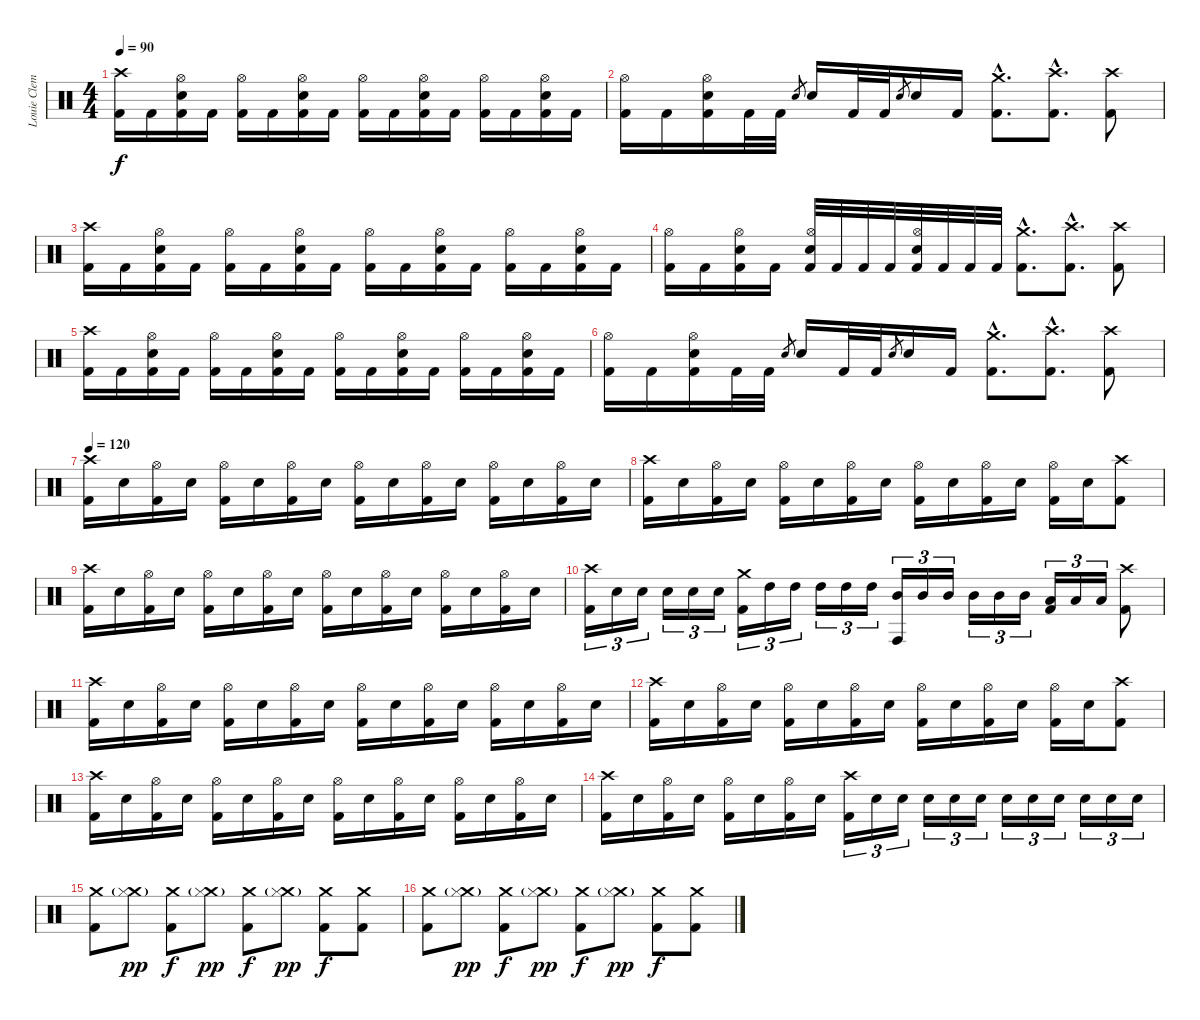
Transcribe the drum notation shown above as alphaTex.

\track ("Louie Clemente" "Louie Clem") {instrument percussion}
\staff {score}
\articulation defaults
\ts (4 4)
\tempo 90
\clef neutral
\ks c
("Crash high (hit)" "Kick (hit) 2").16{dy f} "Kick (hit) 2".16 ("Hi-Hat (open)" "Snare (hit) 2" "Kick (hit) 2").16 "Kick (hit) 2".16 ("Hi-Hat (open)" "Kick (hit) 2").16 "Kick (hit) 2".16 ("Hi-Hat (open)" "Snare (hit) 2" "Kick (hit) 2").16 "Kick (hit) 2".16 ("Hi-Hat (open)" "Kick (hit) 2").16 "Kick (hit) 2".16 ("Hi-Hat (open)" "Snare (hit) 2" "Kick (hit) 2").16 "Kick (hit) 2".16 ("Hi-Hat (open)" "Kick (hit) 2").16 "Kick (hit) 2".16 ("Hi-Hat (open)" "Snare (hit) 2" "Kick (hit) 2").16 "Kick (hit) 2".16 |
("Hi-Hat (open)" "Kick (hit) 2").16 "Kick (hit) 2".16 ("Hi-Hat (open)" "Snare (hit) 2" "Kick (hit) 2").16 "Kick (hit) 2".32 "Kick (hit) 2".32 "Snare (hit) 2".8{gr} "Snare (hit) 2".16 "Kick (hit) 2".32 "Kick (hit) 2".32 "Snare (hit) 2".8{gr} "Snare (hit) 2".16 "Kick (hit) 2".16 ("Crash medium (hit)"{hac} "Kick (hit) 2"{hac}).8{d} ("Crash high (hit)"{hac} "Kick (hit) 2"{hac}).8{d} ("Crash high (hit)" "Kick (hit) 2").8 |
("Crash high (hit)" "Kick (hit) 2").16 "Kick (hit) 2".16 ("Hi-Hat (open)" "Snare (hit) 2" "Kick (hit) 2").16 "Kick (hit) 2".16 ("Hi-Hat (open)" "Kick (hit) 2").16 "Kick (hit) 2".16 ("Hi-Hat (open)" "Snare (hit) 2" "Kick (hit) 2").16 "Kick (hit) 2".16 ("Hi-Hat (open)" "Kick (hit) 2").16 "Kick (hit) 2".16 ("Hi-Hat (open)" "Snare (hit) 2" "Kick (hit) 2").16 "Kick (hit) 2".16 ("Hi-Hat (open)" "Kick (hit) 2").16 "Kick (hit) 2".16 ("Hi-Hat (open)" "Snare (hit) 2" "Kick (hit) 2").16 "Kick (hit) 2".16 |
("Hi-Hat (open)" "Kick (hit) 2").16 "Kick (hit) 2".16 ("Hi-Hat (open)" "Snare (hit) 2" "Kick (hit) 2").16 "Kick (hit) 2".16 ("Hi-Hat (open)" "Snare (hit) 2" "Kick (hit) 2").32 "Kick (hit) 2".32 "Kick (hit) 2".32 "Kick (hit) 2".32 ("Hi-Hat (open)" "Snare (hit) 2" "Kick (hit) 2").32 "Kick (hit) 2".32 "Kick (hit) 2".32 "Kick (hit) 2".32 ("Crash medium (hit)"{hac} "Kick (hit) 2"{hac}).8{d} ("Crash high (hit)"{hac} "Kick (hit) 2"{hac}).8{d} ("Crash high (hit)" "Kick (hit) 2").8 |
("Crash high (hit)" "Kick (hit) 2").16 "Kick (hit) 2".16 ("Hi-Hat (open)" "Snare (hit) 2" "Kick (hit) 2").16 "Kick (hit) 2".16 ("Hi-Hat (open)" "Kick (hit) 2").16 "Kick (hit) 2".16 ("Hi-Hat (open)" "Snare (hit) 2" "Kick (hit) 2").16 "Kick (hit) 2".16 ("Hi-Hat (open)" "Kick (hit) 2").16 "Kick (hit) 2".16 ("Hi-Hat (open)" "Snare (hit) 2" "Kick (hit) 2").16 "Kick (hit) 2".16 ("Hi-Hat (open)" "Kick (hit) 2").16 "Kick (hit) 2".16 ("Hi-Hat (open)" "Snare (hit) 2" "Kick (hit) 2").16 "Kick (hit) 2".16 |
("Hi-Hat (open)" "Kick (hit) 2").16 "Kick (hit) 2".16 ("Hi-Hat (open)" "Snare (hit) 2" "Kick (hit) 2").16 "Kick (hit) 2".32 "Kick (hit) 2".32 "Snare (hit) 2".8{gr} "Snare (hit) 2".16 "Kick (hit) 2".32 "Kick (hit) 2".32 "Snare (hit) 2".8{gr} "Snare (hit) 2".16 "Kick (hit) 2".16 ("Crash medium (hit)"{hac} "Kick (hit) 2"{hac}).8{d} ("Crash high (hit)"{hac} "Kick (hit) 2"{hac}).8{d} ("Crash high (hit)" "Kick (hit) 2").8 |
\tempo 120
("Crash high (hit)" "Kick (hit) 2").16 "Snare (hit) 2".16 ("Hi-Hat (open)" "Kick (hit) 2").16 "Snare (hit) 2".16 ("Hi-Hat (open)" "Kick (hit) 2").16 "Snare (hit) 2".16 ("Hi-Hat (open)" "Kick (hit) 2").16 "Snare (hit) 2".16 ("Hi-Hat (open)" "Kick (hit) 2").16 "Snare (hit) 2".16 ("Hi-Hat (open)" "Kick (hit) 2").16 "Snare (hit) 2".16 ("Hi-Hat (open)" "Kick (hit) 2").16 "Snare (hit) 2".16 ("Hi-Hat (open)" "Kick (hit) 2").16 "Snare (hit) 2".16 |
("Crash high (hit)" "Kick (hit) 2").16 "Snare (hit) 2".16 ("Hi-Hat (open)" "Kick (hit) 2").16 "Snare (hit) 2".16 ("Hi-Hat (open)" "Kick (hit) 2").16 "Snare (hit) 2".16 ("Hi-Hat (open)" "Kick (hit) 2").16 "Snare (hit) 2".16 ("Hi-Hat (open)" "Kick (hit) 2").16 "Snare (hit) 2".16 ("Hi-Hat (open)" "Kick (hit) 2").16 "Snare (hit) 2".16 ("Hi-Hat (open)" "Kick (hit) 2").16 "Snare (hit) 2".16 ("Crash high (hit)" "Kick (hit) 2").8 |
("Crash high (hit)" "Kick (hit) 2").16 "Snare (hit) 2".16 ("Hi-Hat (open)" "Kick (hit) 2").16 "Snare (hit) 2".16 ("Hi-Hat (open)" "Kick (hit) 2").16 "Snare (hit) 2".16 ("Hi-Hat (open)" "Kick (hit) 2").16 "Snare (hit) 2".16 ("Hi-Hat (open)" "Kick (hit) 2").16 "Snare (hit) 2".16 ("Hi-Hat (open)" "Kick (hit) 2").16 "Snare (hit) 2".16 ("Hi-Hat (open)" "Kick (hit) 2").16 "Snare (hit) 2".16 ("Hi-Hat (open)" "Kick (hit) 2").16 "Snare (hit) 2".16 |
("Crash high (hit)" "Kick (hit) 2").16{tu (3 2)} "Snare (hit) 2".16{tu (3 2)} "Snare (hit) 2".16{tu (3 2)} "Snare (hit) 2".16{tu (3 2)} "Snare (hit) 2".16{tu (3 2)} "Snare (hit) 2".16{tu (3 2)} ("Crash medium (hit)" "Kick (hit) 2").16{tu (3 2)} "High Tom (hit)".16{tu (3 2)} "High Tom (hit)".16{tu (3 2)} "High Tom (hit)".16{tu (3 2)} "High Tom (hit)".16{tu (3 2)} "High Tom (hit)".16{tu (3 2)} ("Mid Tom (hit)" "Conga high (hit)").16{tu (3 2)} "Mid Tom (hit)".16{tu (3 2)} "Mid Tom (hit)".16{tu (3 2)} "Mid Tom (hit)".16{tu (3 2)} "Mid Tom (hit)".16{tu (3 2)} "Mid Tom (hit)".16{tu (3 2)} ("Low Tom (hit)" "Kick (hit) 2").16{tu (3 2)} "Low Tom (hit)".16{tu (3 2)} "Low Tom (hit)".16{tu (3 2)} ("Crash high (hit)" "Kick (hit) 2").8 |
("Crash high (hit)" "Kick (hit) 2").16 "Snare (hit) 2".16 ("Hi-Hat (open)" "Kick (hit) 2").16 "Snare (hit) 2".16 ("Hi-Hat (open)" "Kick (hit) 2").16 "Snare (hit) 2".16 ("Hi-Hat (open)" "Kick (hit) 2").16 "Snare (hit) 2".16 ("Hi-Hat (open)" "Kick (hit) 2").16 "Snare (hit) 2".16 ("Hi-Hat (open)" "Kick (hit) 2").16 "Snare (hit) 2".16 ("Hi-Hat (open)" "Kick (hit) 2").16 "Snare (hit) 2".16 ("Hi-Hat (open)" "Kick (hit) 2").16 "Snare (hit) 2".16 |
("Crash high (hit)" "Kick (hit) 2").16 "Snare (hit) 2".16 ("Hi-Hat (open)" "Kick (hit) 2").16 "Snare (hit) 2".16 ("Hi-Hat (open)" "Kick (hit) 2").16 "Snare (hit) 2".16 ("Hi-Hat (open)" "Kick (hit) 2").16 "Snare (hit) 2".16 ("Hi-Hat (open)" "Kick (hit) 2").16 "Snare (hit) 2".16 ("Hi-Hat (open)" "Kick (hit) 2").16 "Snare (hit) 2".16 ("Hi-Hat (open)" "Kick (hit) 2").16 "Snare (hit) 2".16 ("Crash high (hit)" "Kick (hit) 2").8 |
("Crash high (hit)" "Kick (hit) 2").16 "Snare (hit) 2".16 ("Hi-Hat (open)" "Kick (hit) 2").16 "Snare (hit) 2".16 ("Hi-Hat (open)" "Kick (hit) 2").16 "Snare (hit) 2".16 ("Hi-Hat (open)" "Kick (hit) 2").16 "Snare (hit) 2".16 ("Hi-Hat (open)" "Kick (hit) 2").16 "Snare (hit) 2".16 ("Hi-Hat (open)" "Kick (hit) 2").16 "Snare (hit) 2".16 ("Hi-Hat (open)" "Kick (hit) 2").16 "Snare (hit) 2".16 ("Hi-Hat (open)" "Kick (hit) 2").16 "Snare (hit) 2".16 |
("Crash high (hit)" "Kick (hit) 2").16 "Snare (hit) 2".16 ("Hi-Hat (open)" "Kick (hit) 2").16 "Snare (hit) 2".16 ("Hi-Hat (open)" "Kick (hit) 2").16 "Snare (hit) 2".16 ("Hi-Hat (open)" "Kick (hit) 2").16 "Snare (hit) 2".16 ("Crash high (hit)" "Kick (hit) 2").16{tu (3 2)} "Snare (hit) 2".16{tu (3 2)} "Snare (hit) 2".16{tu (3 2)} "Snare (hit) 2".16{tu (3 2)} "Snare (hit) 2".16{tu (3 2)} "Snare (hit) 2".16{tu (3 2)} "Snare (hit) 2".16{tu (3 2)} "Snare (hit) 2".16{tu (3 2)} "Snare (hit) 2".16{tu (3 2)} "Snare (hit) 2".16{tu (3 2)} "Snare (hit) 2".16{tu (3 2)} "Snare (hit) 2".16{tu (3 2)} |
("Crash medium (hit)" "Kick (hit) 2").8 ("Crash medium (hit)"{g} "Hi-Hat (closed)").8{dy pp} ("Crash medium (hit)" "Kick (hit) 2").8{dy f} ("Crash medium (hit)"{g} "Hi-Hat (closed)").8{dy pp} ("Crash medium (hit)" "Kick (hit) 2").8{dy f} ("Crash medium (hit)"{g} "Hi-Hat (closed)").8{dy pp} ("Crash medium (hit)" "Kick (hit) 2").8{dy f} ("Crash medium (hit)" "Kick (hit) 2").8 |
("Crash medium (hit)" "Kick (hit) 2").8 ("Crash medium (hit)"{g} "Hi-Hat (closed)").8{dy pp} ("Crash medium (hit)" "Kick (hit) 2").8{dy f} ("Crash medium (hit)"{g} "Hi-Hat (closed)").8{dy pp} ("Crash medium (hit)" "Kick (hit) 2").8{dy f} ("Crash medium (hit)"{g} "Hi-Hat (closed)").8{dy pp} ("Crash medium (hit)" "Kick (hit) 2").8{dy f} ("Crash medium (hit)" "Kick (hit) 2").8
